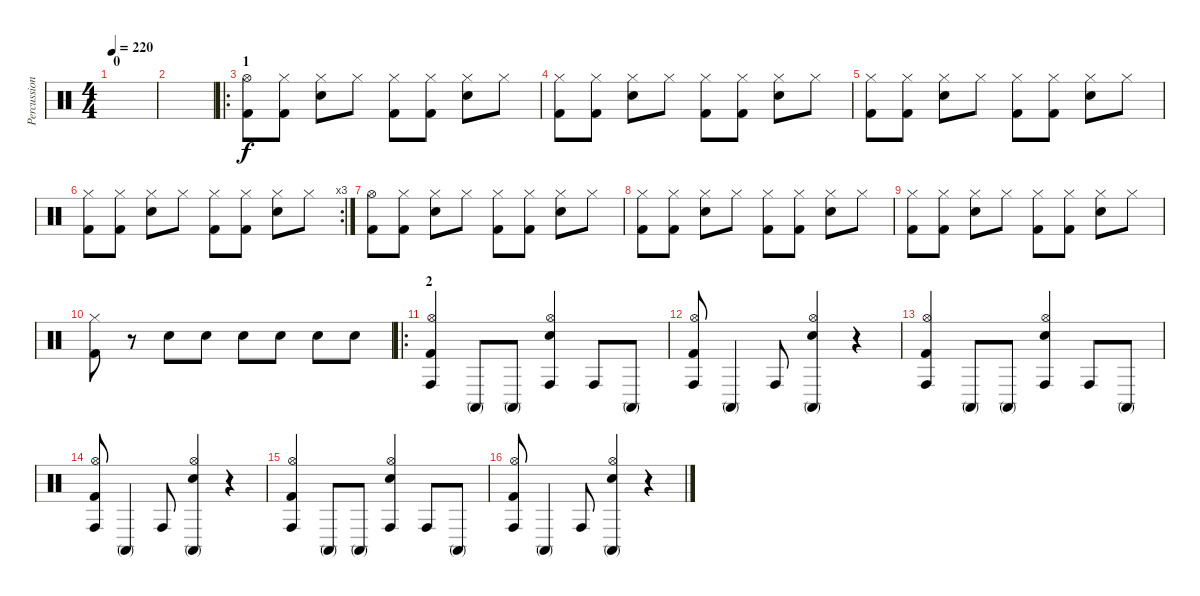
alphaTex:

\track ("Percussion" "Percussion") {instrument percussion}
\staff {score}
\articulation defaults
\ts (4 4)
\section ("" "0")
\tempo 220
\clef neutral
\ks c
|
|
\ro
\section ("" "1")
("Hi-Hat (open)" "Kick (hit) 2").8 ("Hi-Hat (closed)" "Kick (hit) 2").8 ("Hi-Hat (closed)" "Snare (hit) 2").8 "Hi-Hat (closed)".8 ("Hi-Hat (closed)" "Kick (hit) 2").8 ("Hi-Hat (closed)" "Kick (hit) 2").8 ("Hi-Hat (closed)" "Snare (hit) 2").8 "Hi-Hat (closed)".8 |
("Hi-Hat (closed)" "Kick (hit) 2").8 ("Hi-Hat (closed)" "Kick (hit) 2").8 ("Hi-Hat (closed)" "Snare (hit) 2").8 "Hi-Hat (closed)".8 ("Hi-Hat (closed)" "Kick (hit) 2").8 ("Hi-Hat (closed)" "Kick (hit) 2").8 ("Hi-Hat (closed)" "Snare (hit) 2").8 "Hi-Hat (closed)".8 |
("Hi-Hat (closed)" "Kick (hit) 2").8 ("Hi-Hat (closed)" "Kick (hit) 2").8 ("Hi-Hat (closed)" "Snare (hit) 2").8 "Hi-Hat (closed)".8 ("Hi-Hat (closed)" "Kick (hit) 2").8 ("Hi-Hat (closed)" "Kick (hit) 2").8 ("Hi-Hat (closed)" "Snare (hit) 2").8 "Hi-Hat (closed)".8 |
\rc 3
("Hi-Hat (closed)" "Kick (hit) 2").8 ("Hi-Hat (closed)" "Kick (hit) 2").8 ("Hi-Hat (closed)" "Snare (hit) 2").8 "Hi-Hat (closed)".8 ("Hi-Hat (closed)" "Kick (hit) 2").8 ("Hi-Hat (closed)" "Kick (hit) 2").8 ("Hi-Hat (closed)" "Snare (hit) 2").8 "Hi-Hat (closed)".8 |
("Hi-Hat (open)" "Kick (hit) 2").8 ("Hi-Hat (closed)" "Kick (hit) 2").8 ("Hi-Hat (closed)" "Snare (hit) 2").8 "Hi-Hat (closed)".8 ("Hi-Hat (closed)" "Kick (hit) 2").8 ("Hi-Hat (closed)" "Kick (hit) 2").8 ("Hi-Hat (closed)" "Snare (hit) 2").8 "Hi-Hat (closed)".8 |
("Hi-Hat (closed)" "Kick (hit) 2").8 ("Hi-Hat (closed)" "Kick (hit) 2").8 ("Hi-Hat (closed)" "Snare (hit) 2").8 "Hi-Hat (closed)".8 ("Hi-Hat (closed)" "Kick (hit) 2").8 ("Hi-Hat (closed)" "Kick (hit) 2").8 ("Hi-Hat (closed)" "Snare (hit) 2").8 "Hi-Hat (closed)".8 |
("Hi-Hat (closed)" "Kick (hit) 2").8 ("Hi-Hat (closed)" "Kick (hit) 2").8 ("Hi-Hat (closed)" "Snare (hit) 2").8 "Hi-Hat (closed)".8 ("Hi-Hat (closed)" "Kick (hit) 2").8 ("Hi-Hat (closed)" "Kick (hit) 2").8 ("Hi-Hat (closed)" "Snare (hit) 2").8 "Hi-Hat (closed)".8 |
("Hi-Hat (closed)" "Kick (hit) 2").8 r.8 "Snare (hit) 2".8 "Snare (hit) 2".8 "Snare (hit) 2".8 "Snare (hit) 2".8 "Snare (hit) 2".8 "Snare (hit) 2".8 |
\ro
\section ("" "2")
("Hi-Hat (open)" "Conga high (hit)" "Kick (hit) 2").4 "Conga high (mute)".8 "Conga high (mute)".8 ("Hi-Hat (open)" "Conga high (hit)" "Snare (hit) 2").4 "Conga high (hit)".8 "Conga high (mute)".8 |
("Hi-Hat (open)" "Conga high (hit)" "Kick (hit) 2").8 "Conga high (mute)".4 "Conga high (hit)".8 ("Hi-Hat (open)" "Conga high (mute)" "Snare (hit) 2").4 r.4 |
("Hi-Hat (open)" "Conga high (hit)" "Kick (hit) 2").4 "Conga high (mute)".8 "Conga high (mute)".8 ("Hi-Hat (open)" "Conga high (hit)" "Snare (hit) 2").4 "Conga high (hit)".8 "Conga high (mute)".8 |
("Hi-Hat (open)" "Conga high (hit)" "Kick (hit) 2").8 "Conga high (mute)".4 "Conga high (hit)".8 ("Hi-Hat (open)" "Conga high (mute)" "Snare (hit) 2").4 r.4 |
("Hi-Hat (open)" "Conga high (hit)" "Kick (hit) 2").4 "Conga high (mute)".8 "Conga high (mute)".8 ("Hi-Hat (open)" "Conga high (hit)" "Snare (hit) 2").4 "Conga high (hit)".8 "Conga high (mute)".8 |
("Hi-Hat (open)" "Conga high (hit)" "Kick (hit) 2").8 "Conga high (mute)".4 "Conga high (hit)".8 ("Hi-Hat (open)" "Conga high (mute)" "Snare (hit) 2").4 r.4
